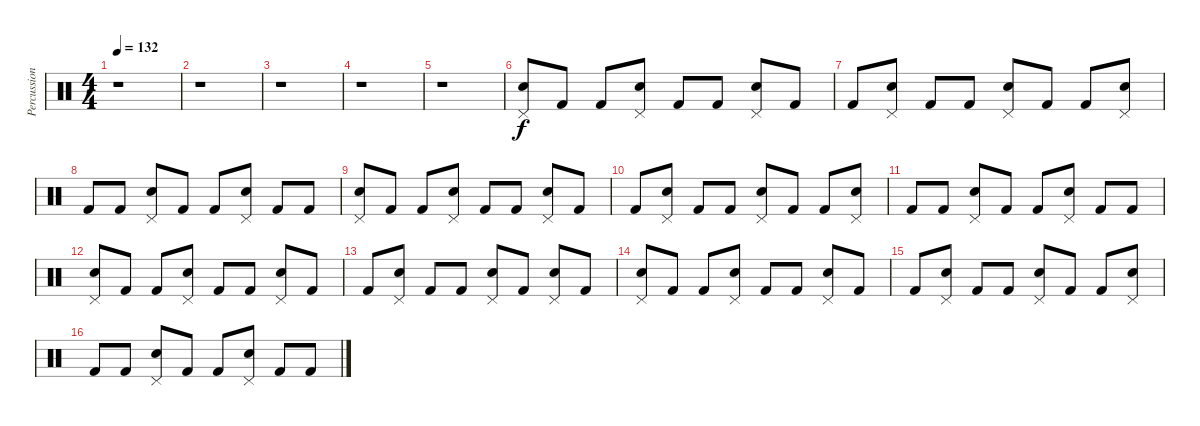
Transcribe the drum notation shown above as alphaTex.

\track ("Percussion" "Percussion") {instrument percussion}
\staff {score}
\articulation defaults
\ts (4 4)
\tempo 132
\clef neutral
\ks c
r.1{dy f} |
r.1 |
r.1 |
r.1 |
r.1 |
("Pedal Hi-Hat (hit)" "Snare (hit) 2").8 "Kick (hit) 2".8 "Kick (hit) 2".8 ("Pedal Hi-Hat (hit)" "Snare (hit) 2").8 "Kick (hit) 2".8 "Kick (hit) 2".8 ("Pedal Hi-Hat (hit)" "Snare (hit) 2").8 "Kick (hit) 2".8 |
"Kick (hit) 2".8 ("Pedal Hi-Hat (hit)" "Snare (hit) 2").8 "Kick (hit) 2".8 "Kick (hit) 2".8 ("Pedal Hi-Hat (hit)" "Snare (hit) 2").8 "Kick (hit) 2".8 "Kick (hit) 2".8 ("Pedal Hi-Hat (hit)" "Snare (hit) 2").8 |
"Kick (hit) 2".8 "Kick (hit) 2".8 ("Pedal Hi-Hat (hit)" "Snare (hit) 2").8 "Kick (hit) 2".8 "Kick (hit) 2".8 ("Pedal Hi-Hat (hit)" "Snare (hit) 2").8 "Kick (hit) 2".8 "Kick (hit) 2".8 |
("Pedal Hi-Hat (hit)" "Snare (hit) 2").8 "Kick (hit) 2".8 "Kick (hit) 2".8 ("Pedal Hi-Hat (hit)" "Snare (hit) 2").8 "Kick (hit) 2".8 "Kick (hit) 2".8 ("Pedal Hi-Hat (hit)" "Snare (hit) 2").8 "Kick (hit) 2".8 |
"Kick (hit) 2".8 ("Pedal Hi-Hat (hit)" "Snare (hit) 2").8 "Kick (hit) 2".8 "Kick (hit) 2".8 ("Pedal Hi-Hat (hit)" "Snare (hit) 2").8 "Kick (hit) 2".8 "Kick (hit) 2".8 ("Pedal Hi-Hat (hit)" "Snare (hit) 2").8 |
"Kick (hit) 2".8 "Kick (hit) 2".8 ("Pedal Hi-Hat (hit)" "Snare (hit) 2").8 "Kick (hit) 2".8 "Kick (hit) 2".8 ("Pedal Hi-Hat (hit)" "Snare (hit) 2").8 "Kick (hit) 2".8 "Kick (hit) 2".8 |
("Pedal Hi-Hat (hit)" "Snare (hit) 2").8 "Kick (hit) 2".8 "Kick (hit) 2".8 ("Pedal Hi-Hat (hit)" "Snare (hit) 2").8 "Kick (hit) 2".8 "Kick (hit) 2".8 ("Pedal Hi-Hat (hit)" "Snare (hit) 2").8 "Kick (hit) 2".8 |
"Kick (hit) 2".8 ("Pedal Hi-Hat (hit)" "Snare (hit) 2").8 "Kick (hit) 2".8 "Kick (hit) 2".8 ("Pedal Hi-Hat (hit)" "Snare (hit) 2").8 "Kick (hit) 2".8 ("Pedal Hi-Hat (hit)" "Snare (hit) 2").8 "Kick (hit) 2".8 |
("Pedal Hi-Hat (hit)" "Snare (hit) 2").8 "Kick (hit) 2".8 "Kick (hit) 2".8 ("Pedal Hi-Hat (hit)" "Snare (hit) 2").8 "Kick (hit) 2".8 "Kick (hit) 2".8 ("Pedal Hi-Hat (hit)" "Snare (hit) 2").8 "Kick (hit) 2".8 |
"Kick (hit) 2".8 ("Pedal Hi-Hat (hit)" "Snare (hit) 2").8 "Kick (hit) 2".8 "Kick (hit) 2".8 ("Pedal Hi-Hat (hit)" "Snare (hit) 2").8 "Kick (hit) 2".8 "Kick (hit) 2".8 ("Pedal Hi-Hat (hit)" "Snare (hit) 2").8 |
"Kick (hit) 2".8 "Kick (hit) 2".8 ("Pedal Hi-Hat (hit)" "Snare (hit) 2").8 "Kick (hit) 2".8 "Kick (hit) 2".8 ("Pedal Hi-Hat (hit)" "Snare (hit) 2").8 "Kick (hit) 2".8 "Kick (hit) 2".8
